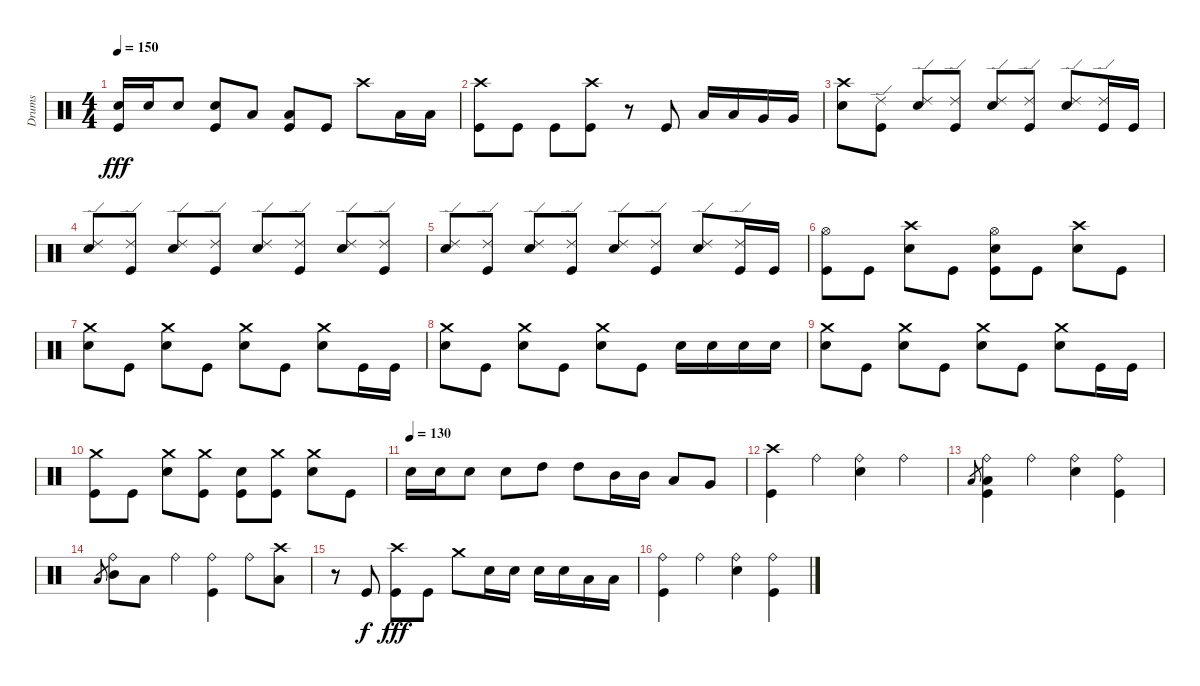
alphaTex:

\track ("Drums" "Drums") {instrument percussion}
\staff {score}
\articulation defaults
\ts (4 4)
\tempo 150
\clef neutral
\ks c
("Snare (hit) 2" "Kick (hit)").16{dy fff} "Snare (hit) 2".16 "Snare (hit) 2".8 ("Snare (hit) 2" "Kick (hit)").8 "Low Floor Tom (hit)".8 ("Low Floor Tom (hit)" "Kick (hit)").8 "Kick (hit)".8 "Crash high (hit)".8 "Low Tom (hit)".16 "Low Tom (hit)".16 |
("Crash high (hit)" "Kick (hit)").8 "Kick (hit)".8 "Kick (hit)".8 ("Crash high (hit)" "Kick (hit)").8 r.8 "Kick (hit)".8 "Low Tom (hit)".16 "Low Tom (hit)".16 "Very Low Tom (hit)".16 "Very Low Tom (hit)".16 |
("Crash high (hit)" "Snare (hit) 2").8 ("Ride (edge) 2" "Kick (hit)").8 ("Ride (edge) 2" "Snare (hit) 2").8 ("Ride (edge) 2" "Kick (hit)").8 ("Ride (edge) 2" "Snare (hit) 2").8 ("Ride (edge) 2" "Kick (hit)").8 ("Ride (edge) 2" "Snare (hit) 2").8 ("Ride (edge) 2" "Kick (hit)").16 "Kick (hit)".16 |
("Ride (edge) 2" "Snare (hit) 2").8 ("Ride (edge) 2" "Kick (hit)").8 ("Ride (edge) 2" "Snare (hit) 2").8 ("Ride (edge) 2" "Kick (hit)").8 ("Ride (edge) 2" "Snare (hit) 2").8 ("Ride (edge) 2" "Kick (hit)").8 ("Ride (edge) 2" "Snare (hit) 2").8 ("Ride (edge) 2" "Kick (hit)").8 |
("Ride (edge) 2" "Snare (hit) 2").8 ("Ride (edge) 2" "Kick (hit)").8 ("Ride (edge) 2" "Snare (hit) 2").8 ("Ride (edge) 2" "Kick (hit)").8 ("Ride (edge) 2" "Snare (hit) 2").8 ("Ride (edge) 2" "Kick (hit)").8 ("Ride (edge) 2" "Snare (hit) 2").8 ("Ride (edge) 2" "Kick (hit)").16 "Kick (hit)".16 |
("Hi-Hat (open)" "Kick (hit)").8 "Kick (hit)".8 ("Crash high (hit)" "Snare (hit) 2").8 "Kick (hit)".8 ("Hi-Hat (open)" "Snare (hit) 2" "Kick (hit)").8 "Kick (hit)".8 ("Crash high (hit)" "Snare (hit) 2").8 "Kick (hit)".8 |
("Crash medium (hit)" "Snare (hit) 2").8 "Kick (hit)".8 ("Crash medium (hit)" "Snare (hit) 2").8 "Kick (hit)".8 ("Crash medium (hit)" "Snare (hit) 2").8 "Kick (hit)".8 ("Crash medium (hit)" "Snare (hit) 2").8 "Kick (hit)".16 "Kick (hit)".16 |
("Crash medium (hit)" "Snare (hit) 2").8 "Kick (hit)".8 ("Crash medium (hit)" "Snare (hit) 2").8 "Kick (hit)".8 ("Crash medium (hit)" "Snare (hit) 2").8 "Kick (hit)".8 "Snare (hit) 2".16 "Snare (hit) 2".16 "Snare (hit) 2".16 "Snare (hit) 2".16 |
("Crash medium (hit)" "Snare (hit) 2").8 "Kick (hit)".8 ("Crash medium (hit)" "Snare (hit) 2").8 "Kick (hit)".8 ("Crash medium (hit)" "Snare (hit) 2").8 "Kick (hit)".8 ("Crash medium (hit)" "Snare (hit) 2").8 "Kick (hit)".16 "Kick (hit)".16 |
("Crash medium (hit)" "Kick (hit)").8 "Kick (hit)".8 ("Crash medium (hit)" "Snare (hit) 2").8 ("Crash medium (hit)" "Kick (hit)").8 ("Snare (hit) 2" "Kick (hit)").8 ("Crash medium (hit)" "Kick (hit)").8 ("Crash medium (hit)" "Snare (hit) 2").8 "Kick (hit)".8 |
\tempo (130)
"Snare (hit) 2".16 "Snare (hit) 2".16 "Snare (hit) 2".8 "Snare (hit) 2".8 "High Tom (hit)".8 "High Tom (hit)".8 "Mid Tom (hit)".16 "Mid Tom (hit)".16 "Low Tom (hit)".8 "Very Low Tom (hit)".8 |
("Crash high (hit)" "Kick (hit)").4 "Ride (bell)".4 ("Ride (bell)" "Snare (hit) 2").4 "Ride (bell)".4 |
"Low Tom (hit)".8{gr} ("Ride (bell)" "Low Tom (hit)" "Kick (hit)").4 "Ride (bell)".4 ("Ride (bell)" "Snare (hit) 2").4 ("Ride (bell)" "Kick (hit)").4 |
"Low Tom (hit)".8{gr} ("Ride (bell)" "Mid Tom (hit)").8 "Low Tom (hit)".8 "Ride (bell)".4 ("Ride (bell)" "Kick (hit)").4 "Ride (bell)".8 ("Crash high (hit)" "Low Tom (hit)").8 |
r.8 "Kick (hit)".8{dy f} ("Crash high (hit)" "Kick (hit)").8{dy fff} "Kick (hit)".8 "Crash medium (hit)".8 "Snare (hit) 2".16 "Snare (hit) 2".16 "Snare (hit) 2".16 "Snare (hit) 2".16 "Low Tom (hit)".16 "Low Tom (hit)".16 |
("Ride (bell)" "Kick (hit)").4 "Ride (bell)".4 ("Ride (bell)" "Snare (hit) 2").4 ("Ride (bell)" "Kick (hit)").4
